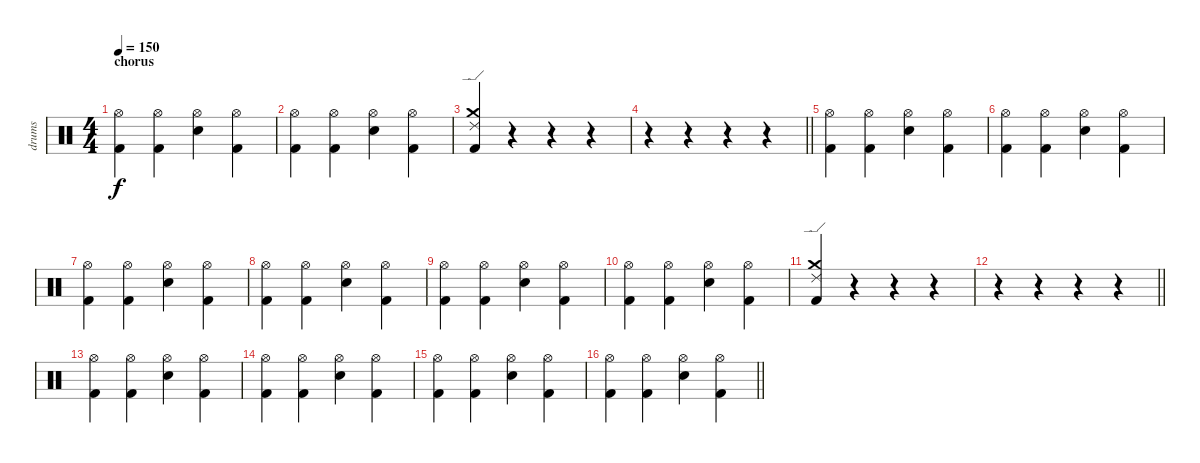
\track ("drums" "drums") {instrument percussion}
\staff {score}
\articulation defaults
\ts (4 4)
\section ("" "chorus")
\tempo 150
\clef neutral
\ks c
("Hi-Hat (open)" "Kick (hit) 2").4{dy f} ("Hi-Hat (open)" "Kick (hit) 2").4 ("Hi-Hat (open)" "Electric Snare (hit)").4 ("Hi-Hat (open)" "Kick (hit) 2").4 |
("Hi-Hat (open)" "Kick (hit) 2").4 ("Hi-Hat (open)" "Kick (hit) 2").4 ("Hi-Hat (open)" "Electric Snare (hit)").4 ("Hi-Hat (open)" "Kick (hit) 2").4 |
("Kick (hit) 2" "Crash medium (hit)" "Ride (edge) 2").4 r.4 r.4 r.4 |
\barLineRight lightlight
r.4 r.4 r.4 r.4 |
("Hi-Hat (open)" "Kick (hit) 2").4 ("Hi-Hat (open)" "Kick (hit) 2").4 ("Hi-Hat (open)" "Electric Snare (hit)").4 ("Hi-Hat (open)" "Kick (hit) 2").4 |
("Hi-Hat (open)" "Kick (hit) 2").4 ("Hi-Hat (open)" "Kick (hit) 2").4 ("Hi-Hat (open)" "Electric Snare (hit)").4 ("Hi-Hat (open)" "Kick (hit) 2").4 |
("Hi-Hat (open)" "Kick (hit) 2").4 ("Hi-Hat (open)" "Kick (hit) 2").4 ("Hi-Hat (open)" "Electric Snare (hit)").4 ("Hi-Hat (open)" "Kick (hit) 2").4 |
("Hi-Hat (open)" "Kick (hit) 2").4 ("Hi-Hat (open)" "Kick (hit) 2").4 ("Hi-Hat (open)" "Electric Snare (hit)").4 ("Hi-Hat (open)" "Kick (hit) 2").4 |
("Hi-Hat (open)" "Kick (hit) 2").4 ("Hi-Hat (open)" "Kick (hit) 2").4 ("Hi-Hat (open)" "Electric Snare (hit)").4 ("Hi-Hat (open)" "Kick (hit) 2").4 |
("Hi-Hat (open)" "Kick (hit) 2").4 ("Hi-Hat (open)" "Kick (hit) 2").4 ("Hi-Hat (open)" "Electric Snare (hit)").4 ("Hi-Hat (open)" "Kick (hit) 2").4 |
("Kick (hit) 2" "Crash medium (hit)" "Ride (edge) 2").4 r.4 r.4 r.4 |
\barLineRight lightlight
r.4 r.4 r.4 r.4 |
("Hi-Hat (open)" "Kick (hit) 2").4 ("Hi-Hat (open)" "Kick (hit) 2").4 ("Hi-Hat (open)" "Electric Snare (hit)").4 ("Hi-Hat (open)" "Kick (hit) 2").4 |
("Hi-Hat (open)" "Kick (hit) 2").4 ("Hi-Hat (open)" "Kick (hit) 2").4 ("Hi-Hat (open)" "Electric Snare (hit)").4 ("Hi-Hat (open)" "Kick (hit) 2").4 |
("Hi-Hat (open)" "Kick (hit) 2").4 ("Hi-Hat (open)" "Kick (hit) 2").4 ("Hi-Hat (open)" "Electric Snare (hit)").4 ("Hi-Hat (open)" "Kick (hit) 2").4 |
\barLineRight lightlight
("Hi-Hat (open)" "Kick (hit) 2").4 ("Hi-Hat (open)" "Kick (hit) 2").4 ("Hi-Hat (open)" "Electric Snare (hit)").4 ("Hi-Hat (open)" "Kick (hit) 2").4
